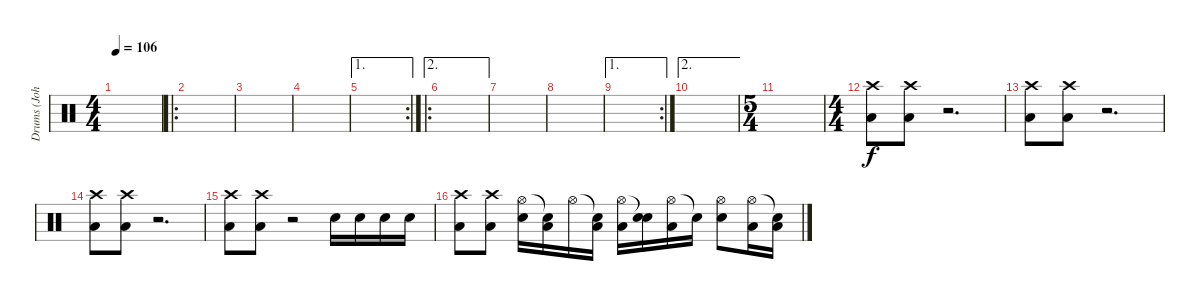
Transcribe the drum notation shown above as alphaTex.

\track ("Drums (John)" "Drums (Joh") {instrument percussion}
\staff {score}
\articulation defaults
\ts (4 4)
\tempo 106
\clef neutral
\ks c
|
\ro
|
|
|
\ae 1
\rc 2
|
\ae 2
\ro
|
|
|
\ae 1
\rc 2
|
\ae 2
|
\ts (5 4)
|
\ts (4 4)
("Crash high (hit)" "Low Tom (hit)").8 ("Crash high (hit)" "Low Tom (hit)").8 r.2{d} |
("Crash high (hit)" "Low Tom (hit)").8 ("Crash high (hit)" "Low Tom (hit)").8 r.2{d} |
("Crash high (hit)" "Low Tom (hit)").8 ("Crash high (hit)" "Low Tom (hit)").8 r.2{d} |
("Crash high (hit)" "Low Tom (hit)").8 ("Crash high (hit)" "Low Tom (hit)").8 r.2 "Electric Snare (hit)".16 "Electric Snare (hit)".16 "Electric Snare (hit)".16 "Electric Snare (hit)".16 |
("Crash high (hit)" "Low Tom (hit)").8 ("Crash high (hit)" "Low Tom (hit)").8 ("Hi-Hat (open)" "Electric Snare (hit)").16 ("Snare (hit)"{t} "Low Tom (hit)").16 "Hi-Hat (open)".16 ("Snare (hit)"{t} "Low Tom (hit)").16 ("Hi-Hat (open)" "Low Tom (hit)").16 ("Snare (hit)"{t} "Electric Snare (hit)").16 ("Hi-Hat (open)" "Low Tom (hit)").16 "Snare (hit)"{t}.16 ("Hi-Hat (open)" "Electric Snare (hit)").8 ("Hi-Hat (open)" "Low Tom (hit)").16 ("Snare (hit)"{t} "Low Tom (hit)").16
